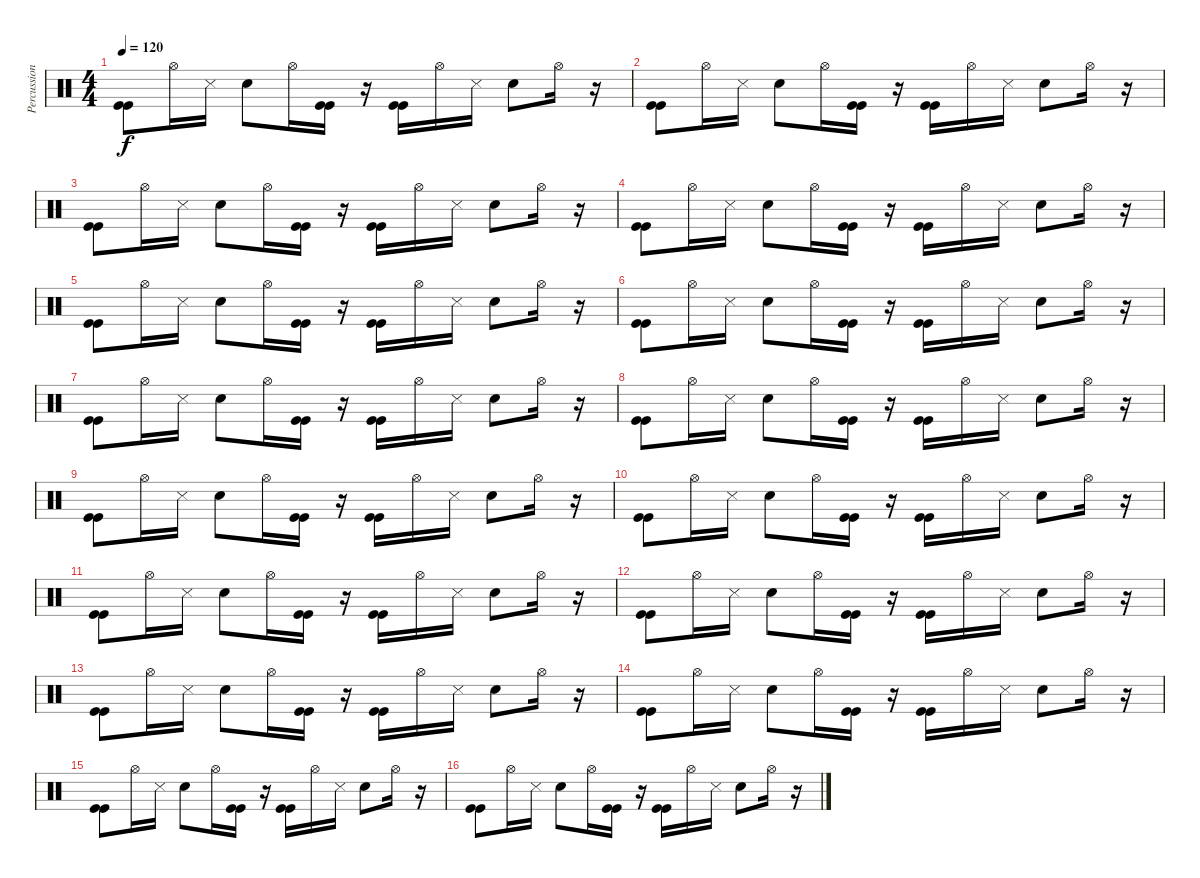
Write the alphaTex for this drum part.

\track ("Percussions" "Percussion") {instrument percussion}
\staff {score}
\articulation defaults
\ts (4 4)
\tempo 120
\clef neutral
\ks c
("Kick (hit)" "Kick (hit)").8{dy f} "Hi-Hat (open)".16 "Snare (side stick) 3".16 "Electric Snare (hit)".8 "Hi-Hat (open)".16 ("Kick (hit)" "Kick (hit)").16 r.16 ("Kick (hit)" "Kick (hit)").16 "Hi-Hat (open)".16 "Snare (side stick) 3".16 "Electric Snare (hit)".8 "Hi-Hat (open)".16 r.16 |
("Kick (hit)" "Kick (hit)").8 "Hi-Hat (open)".16 "Snare (side stick) 3".16 "Electric Snare (hit)".8 "Hi-Hat (open)".16 ("Kick (hit)" "Kick (hit)").16 r.16 ("Kick (hit)" "Kick (hit)").16 "Hi-Hat (open)".16 "Snare (side stick) 3".16 "Electric Snare (hit)".8 "Hi-Hat (open)".16 r.16 |
("Kick (hit)" "Kick (hit)").8 "Hi-Hat (open)".16 "Snare (side stick) 3".16 "Electric Snare (hit)".8 "Hi-Hat (open)".16 ("Kick (hit)" "Kick (hit)").16 r.16 ("Kick (hit)" "Kick (hit)").16 "Hi-Hat (open)".16 "Snare (side stick) 3".16 "Electric Snare (hit)".8 "Hi-Hat (open)".16 r.16 |
("Kick (hit)" "Kick (hit)").8 "Hi-Hat (open)".16 "Snare (side stick) 3".16 "Electric Snare (hit)".8 "Hi-Hat (open)".16 ("Kick (hit)" "Kick (hit)").16 r.16 ("Kick (hit)" "Kick (hit)").16 "Hi-Hat (open)".16 "Snare (side stick) 3".16 "Electric Snare (hit)".8 "Hi-Hat (open)".16 r.16 |
("Kick (hit)" "Kick (hit)").8 "Hi-Hat (open)".16 "Snare (side stick) 3".16 "Electric Snare (hit)".8 "Hi-Hat (open)".16 ("Kick (hit)" "Kick (hit)").16 r.16 ("Kick (hit)" "Kick (hit)").16 "Hi-Hat (open)".16 "Snare (side stick) 3".16 "Electric Snare (hit)".8 "Hi-Hat (open)".16 r.16 |
("Kick (hit)" "Kick (hit)").8 "Hi-Hat (open)".16 "Snare (side stick) 3".16 "Electric Snare (hit)".8 "Hi-Hat (open)".16 ("Kick (hit)" "Kick (hit)").16 r.16 ("Kick (hit)" "Kick (hit)").16 "Hi-Hat (open)".16 "Snare (side stick) 3".16 "Electric Snare (hit)".8 "Hi-Hat (open)".16 r.16 |
("Kick (hit)" "Kick (hit)").8 "Hi-Hat (open)".16 "Snare (side stick) 3".16 "Electric Snare (hit)".8 "Hi-Hat (open)".16 ("Kick (hit)" "Kick (hit)").16 r.16 ("Kick (hit)" "Kick (hit)").16 "Hi-Hat (open)".16 "Snare (side stick) 3".16 "Electric Snare (hit)".8 "Hi-Hat (open)".16 r.16 |
("Kick (hit)" "Kick (hit)").8 "Hi-Hat (open)".16 "Snare (side stick) 3".16 "Electric Snare (hit)".8 "Hi-Hat (open)".16 ("Kick (hit)" "Kick (hit)").16 r.16 ("Kick (hit)" "Kick (hit)").16 "Hi-Hat (open)".16 "Snare (side stick) 3".16 "Electric Snare (hit)".8 "Hi-Hat (open)".16 r.16 |
("Kick (hit)" "Kick (hit)").8 "Hi-Hat (open)".16 "Snare (side stick) 3".16 "Electric Snare (hit)".8 "Hi-Hat (open)".16 ("Kick (hit)" "Kick (hit)").16 r.16 ("Kick (hit)" "Kick (hit)").16 "Hi-Hat (open)".16 "Snare (side stick) 3".16 "Electric Snare (hit)".8 "Hi-Hat (open)".16 r.16 |
("Kick (hit)" "Kick (hit)").8 "Hi-Hat (open)".16 "Snare (side stick) 3".16 "Electric Snare (hit)".8 "Hi-Hat (open)".16 ("Kick (hit)" "Kick (hit)").16 r.16 ("Kick (hit)" "Kick (hit)").16 "Hi-Hat (open)".16 "Snare (side stick) 3".16 "Electric Snare (hit)".8 "Hi-Hat (open)".16 r.16 |
("Kick (hit)" "Kick (hit)").8 "Hi-Hat (open)".16 "Snare (side stick) 3".16 "Electric Snare (hit)".8 "Hi-Hat (open)".16 ("Kick (hit)" "Kick (hit)").16 r.16 ("Kick (hit)" "Kick (hit)").16 "Hi-Hat (open)".16 "Snare (side stick) 3".16 "Electric Snare (hit)".8 "Hi-Hat (open)".16 r.16 |
("Kick (hit)" "Kick (hit)").8 "Hi-Hat (open)".16 "Snare (side stick) 3".16 "Electric Snare (hit)".8 "Hi-Hat (open)".16 ("Kick (hit)" "Kick (hit)").16 r.16 ("Kick (hit)" "Kick (hit)").16 "Hi-Hat (open)".16 "Snare (side stick) 3".16 "Electric Snare (hit)".8 "Hi-Hat (open)".16 r.16 |
("Kick (hit)" "Kick (hit)").8 "Hi-Hat (open)".16 "Snare (side stick) 3".16 "Electric Snare (hit)".8 "Hi-Hat (open)".16 ("Kick (hit)" "Kick (hit)").16 r.16 ("Kick (hit)" "Kick (hit)").16 "Hi-Hat (open)".16 "Snare (side stick) 3".16 "Electric Snare (hit)".8 "Hi-Hat (open)".16 r.16 |
("Kick (hit)" "Kick (hit)").8 "Hi-Hat (open)".16 "Snare (side stick) 3".16 "Electric Snare (hit)".8 "Hi-Hat (open)".16 ("Kick (hit)" "Kick (hit)").16 r.16 ("Kick (hit)" "Kick (hit)").16 "Hi-Hat (open)".16 "Snare (side stick) 3".16 "Electric Snare (hit)".8 "Hi-Hat (open)".16 r.16 |
("Kick (hit)" "Kick (hit)").8 "Hi-Hat (open)".16 "Snare (side stick) 3".16 "Electric Snare (hit)".8 "Hi-Hat (open)".16 ("Kick (hit)" "Kick (hit)").16 r.16 ("Kick (hit)" "Kick (hit)").16 "Hi-Hat (open)".16 "Snare (side stick) 3".16 "Electric Snare (hit)".8 "Hi-Hat (open)".16 r.16 |
("Kick (hit)" "Kick (hit)").8 "Hi-Hat (open)".16 "Snare (side stick) 3".16 "Electric Snare (hit)".8 "Hi-Hat (open)".16 ("Kick (hit)" "Kick (hit)").16 r.16 ("Kick (hit)" "Kick (hit)").16 "Hi-Hat (open)".16 "Snare (side stick) 3".16 "Electric Snare (hit)".8 "Hi-Hat (open)".16 r.16
